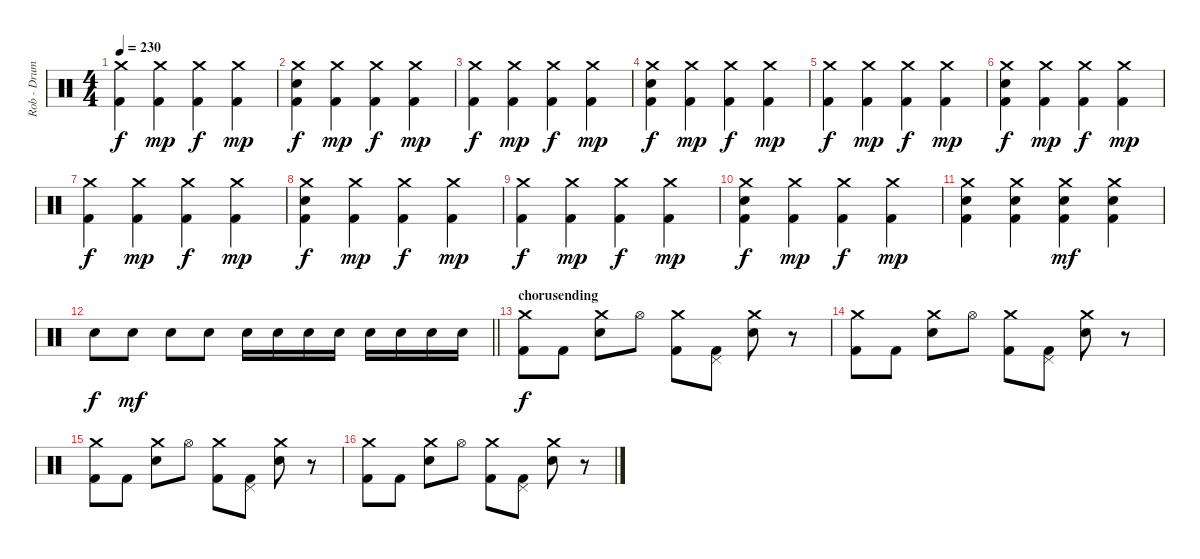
\track ("Rob - Drums" "Rob - Drum") {instrument percussion}
\staff {score}
\articulation defaults
\ts (4 4)
\tempo 230
\clef neutral
\ks c
("Crash medium (hit)" "Kick (hit) 2").4{dy f} ("Crash medium (hit)" "Kick (hit) 2").4{dy mp} ("Crash medium (hit)" "Kick (hit) 2").4{dy f} ("Crash medium (hit)" "Kick (hit) 2").4{dy mp} |
("Crash medium (hit)" "Electric Snare (hit)" "Kick (hit) 2").4{dy f} ("Crash medium (hit)" "Kick (hit) 2").4{dy mp} ("Crash medium (hit)" "Kick (hit) 2").4{dy f} ("Crash medium (hit)" "Kick (hit) 2").4{dy mp} |
("Crash medium (hit)" "Kick (hit) 2").4{dy f} ("Crash medium (hit)" "Kick (hit) 2").4{dy mp} ("Crash medium (hit)" "Kick (hit) 2").4{dy f} ("Crash medium (hit)" "Kick (hit) 2").4{dy mp} |
("Crash medium (hit)" "Electric Snare (hit)" "Kick (hit) 2").4{dy f} ("Crash medium (hit)" "Kick (hit) 2").4{dy mp} ("Crash medium (hit)" "Kick (hit) 2").4{dy f} ("Crash medium (hit)" "Kick (hit) 2").4{dy mp} |
("Crash medium (hit)" "Kick (hit) 2").4{dy f} ("Crash medium (hit)" "Kick (hit) 2").4{dy mp} ("Crash medium (hit)" "Kick (hit) 2").4{dy f} ("Crash medium (hit)" "Kick (hit) 2").4{dy mp} |
("Crash medium (hit)" "Electric Snare (hit)" "Kick (hit) 2").4{dy f} ("Crash medium (hit)" "Kick (hit) 2").4{dy mp} ("Crash medium (hit)" "Kick (hit) 2").4{dy f} ("Crash medium (hit)" "Kick (hit) 2").4{dy mp} |
("Crash medium (hit)" "Kick (hit) 2").4{dy f} ("Crash medium (hit)" "Kick (hit) 2").4{dy mp} ("Crash medium (hit)" "Kick (hit) 2").4{dy f} ("Crash medium (hit)" "Kick (hit) 2").4{dy mp} |
("Crash medium (hit)" "Electric Snare (hit)" "Kick (hit) 2").4{dy f} ("Crash medium (hit)" "Kick (hit) 2").4{dy mp} ("Crash medium (hit)" "Kick (hit) 2").4{dy f} ("Crash medium (hit)" "Kick (hit) 2").4{dy mp} |
("Crash medium (hit)" "Kick (hit) 2").4{dy f} ("Crash medium (hit)" "Kick (hit) 2").4{dy mp} ("Crash medium (hit)" "Kick (hit) 2").4{dy f} ("Crash medium (hit)" "Kick (hit) 2").4{dy mp} |
("Crash medium (hit)" "Electric Snare (hit)" "Kick (hit) 2").4{dy f} ("Crash medium (hit)" "Kick (hit) 2").4{dy mp} ("Crash medium (hit)" "Kick (hit) 2").4{dy f} ("Crash medium (hit)" "Kick (hit) 2").4{dy mp} |
("Crash medium (hit)" "Electric Snare (hit)" "Kick (hit) 2").4 ("Crash medium (hit)" "Electric Snare (hit)" "Kick (hit) 2").4 ("Crash medium (hit)" "Electric Snare (hit)" "Kick (hit) 2").4{dy mf} ("Crash medium (hit)" "Electric Snare (hit)" "Kick (hit) 2").4 |
\barLineRight lightlight "Electric Snare (hit)".8{dy f} "Electric Snare (hit)".8{dy mf} "Electric Snare (hit)".8 "Electric Snare (hit)".8 "Electric Snare (hit)".16 "Electric Snare (hit)".16 "Electric Snare (hit)".16 "Electric Snare (hit)".16 "Electric Snare (hit)".16 "Electric Snare (hit)".16 "Electric Snare (hit)".16 "Electric Snare (hit)".16
|
\section ("" "chorusending")
("Crash medium (hit)" "Kick (hit) 2").8{dy f} "Kick (hit) 2".8 ("Crash medium (hit)" "Electric Snare (hit)").8 "Hi-Hat (open)".8 ("Crash medium (hit)" "Kick (hit) 2").8 ("Pedal Hi-Hat (hit)" "Kick (hit) 2").8 ("Crash medium (hit)" "Electric Snare (hit)").8 r.8 |
("Crash medium (hit)" "Kick (hit) 2").8 "Kick (hit) 2".8 ("Crash medium (hit)" "Electric Snare (hit)").8 "Hi-Hat (open)".8 ("Crash medium (hit)" "Kick (hit) 2").8 ("Pedal Hi-Hat (hit)" "Kick (hit) 2").8 ("Crash medium (hit)" "Electric Snare (hit)").8 r.8 |
("Crash medium (hit)" "Kick (hit) 2").8 "Kick (hit) 2".8 ("Crash medium (hit)" "Electric Snare (hit)").8 "Hi-Hat (open)".8 ("Crash medium (hit)" "Kick (hit) 2").8 ("Pedal Hi-Hat (hit)" "Kick (hit) 2").8 ("Crash medium (hit)" "Electric Snare (hit)").8 r.8 |
("Crash medium (hit)" "Kick (hit) 2").8 "Kick (hit) 2".8 ("Crash medium (hit)" "Electric Snare (hit)").8 "Hi-Hat (open)".8 ("Crash medium (hit)" "Kick (hit) 2").8 ("Pedal Hi-Hat (hit)" "Kick (hit) 2").8 ("Crash medium (hit)" "Electric Snare (hit)").8 r.8
